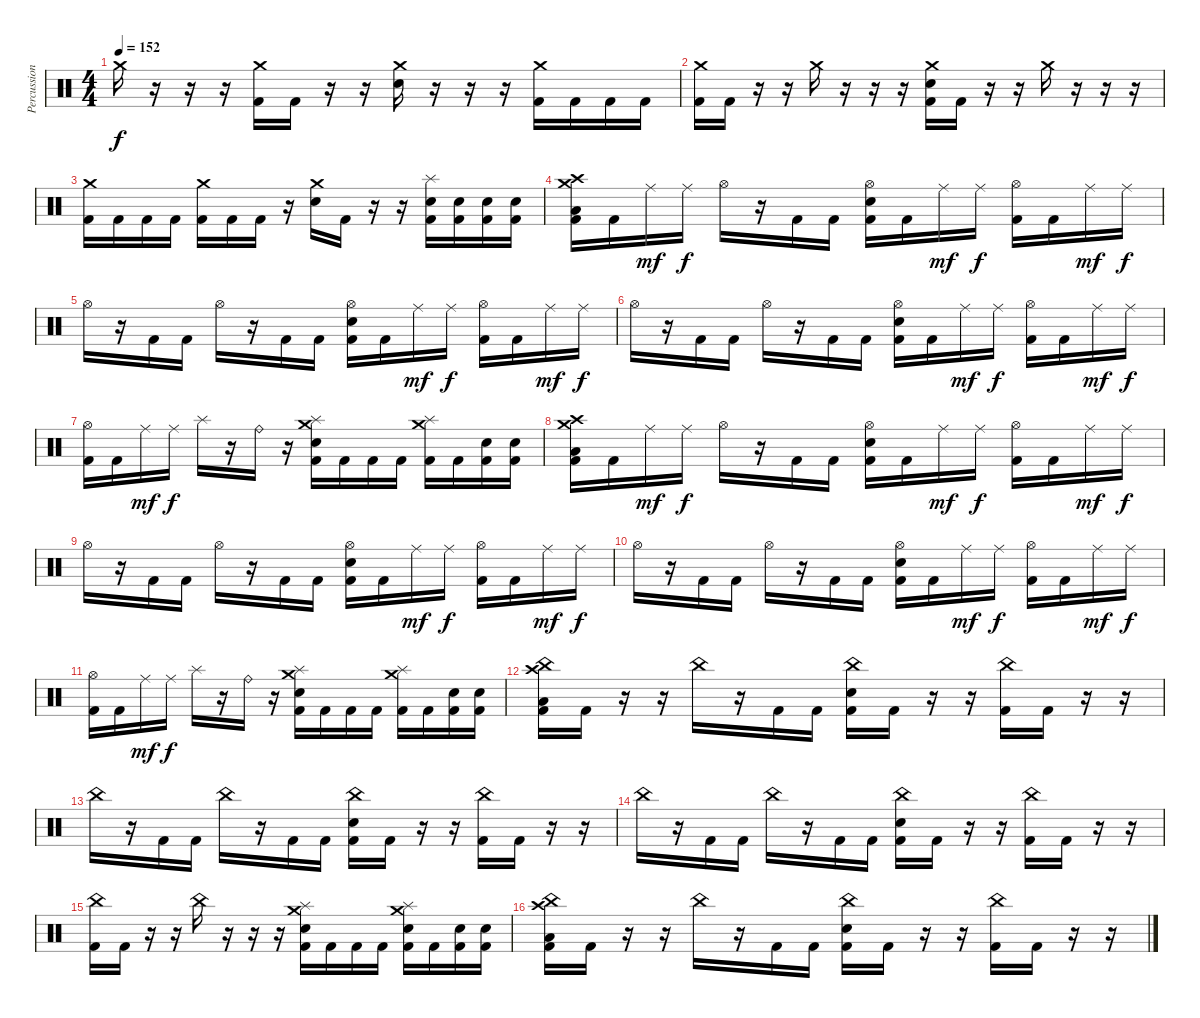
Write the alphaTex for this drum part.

\track ("Percussion" "Percussion") {instrument percussion}
\staff {score}
\articulation defaults
\ts (4 4)
\tempo 152
\clef neutral
\ks c "Crash medium (hit)".16{dy f}
r.16 r.16 r.16 ("Crash medium (hit)" "Kick (hit) 2").16 "Kick (hit) 2".16 r.16 r.16 ("Crash medium (hit)" "Electric Snare (hit)").16 r.16 r.16 r.16 ("Crash medium (hit)" "Kick (hit) 2").16 "Kick (hit) 2".16 "Kick (hit) 2".16 "Kick (hit) 2".16 |
("Crash medium (hit)" "Kick (hit) 2").16 "Kick (hit) 2".16 r.16 r.16 "Crash medium (hit)".16 r.16 r.16 r.16 ("Crash medium (hit)" "Electric Snare (hit)" "Kick (hit) 2").16 "Kick (hit) 2".16 r.16 r.16 "Crash medium (hit)".16 r.16 r.16 r.16 |
("Crash medium (hit)" "Kick (hit) 2").16 "Kick (hit) 2".16 "Kick (hit) 2".16 "Kick (hit) 2".16 ("Crash medium (hit)" "Kick (hit) 2").16 "Kick (hit) 2".16 "Kick (hit) 2".16 r.16 ("Crash medium (hit)" "Electric Snare (hit)").16 "Kick (hit) 2".16 r.16 r.16 ("Splash (hit)" "Electric Snare (hit)" "Kick (hit) 2").16 ("Electric Snare (hit)" "Kick (hit) 2").16 ("Electric Snare (hit)" "Kick (hit) 2").16 ("Electric Snare (hit)" "Kick (hit) 2").16 |
("Crash high (hit)" "Crash medium (hit)" "Low Floor Tom (hit)" "Kick (hit) 2").16 "Kick (hit) 2".16 "Ride (middle)".16{dy mf} "Ride (middle)".16{dy f} "Hi-Hat (open)".16 r.16 "Kick (hit) 2".16 "Kick (hit) 2".16 ("Hi-Hat (open)" "Electric Snare (hit)" "Kick (hit) 2").16 "Kick (hit) 2".16 "Ride (middle)".16{dy mf} "Ride (middle)".16{dy f} ("Hi-Hat (open)" "Kick (hit) 2").16 "Kick (hit) 2".16 "Ride (middle)".16{dy mf} "Ride (middle)".16{dy f} |
"Hi-Hat (open)".16 r.16 "Kick (hit) 2".16 "Kick (hit) 2".16 "Hi-Hat (open)".16 r.16 "Kick (hit) 2".16 "Kick (hit) 2".16 ("Hi-Hat (open)" "Electric Snare (hit)" "Kick (hit) 2").16 "Kick (hit) 2".16 "Ride (middle)".16{dy mf} "Ride (middle)".16{dy f} ("Hi-Hat (open)" "Kick (hit) 2").16 "Kick (hit) 2".16 "Ride (middle)".16{dy mf} "Ride (middle)".16{dy f} |
"Hi-Hat (open)".16 r.16 "Kick (hit) 2".16 "Kick (hit) 2".16 "Hi-Hat (open)".16 r.16 "Kick (hit) 2".16 "Kick (hit) 2".16 ("Hi-Hat (open)" "Electric Snare (hit)" "Kick (hit) 2").16 "Kick (hit) 2".16 "Ride (middle)".16{dy mf} "Ride (middle)".16{dy f} ("Hi-Hat (open)" "Kick (hit) 2").16 "Kick (hit) 2".16 "Ride (middle)".16{dy mf} "Ride (middle)".16{dy f} |
("Hi-Hat (open)" "Kick (hit) 2").16 "Kick (hit) 2".16 "Ride (middle)".16{dy mf} "Ride (middle)".16{dy f} "Splash (hit)".16 r.16 "Ride (bell)".16 r.16 ("Crash medium (hit)" "Splash (hit)" "Electric Snare (hit)" "Kick (hit) 2").16 "Kick (hit) 2".16 "Kick (hit) 2".16 "Kick (hit) 2".16 ("Crash medium (hit)" "Splash (hit)" "Kick (hit) 2").16 "Kick (hit) 2".16 ("Electric Snare (hit)" "Kick (hit) 2").16 ("Electric Snare (hit)" "Kick (hit) 2").16 |
("Crash high (hit)" "Crash medium (hit)" "Low Floor Tom (hit)" "Kick (hit) 2").16 "Kick (hit) 2".16 "Ride (middle)".16{dy mf} "Ride (middle)".16{dy f} "Hi-Hat (open)".16 r.16 "Kick (hit) 2".16 "Kick (hit) 2".16 ("Hi-Hat (open)" "Electric Snare (hit)" "Kick (hit) 2").16 "Kick (hit) 2".16 "Ride (middle)".16{dy mf} "Ride (middle)".16{dy f} ("Hi-Hat (open)" "Kick (hit) 2").16 "Kick (hit) 2".16 "Ride (middle)".16{dy mf} "Ride (middle)".16{dy f} |
"Hi-Hat (open)".16 r.16 "Kick (hit) 2".16 "Kick (hit) 2".16 "Hi-Hat (open)".16 r.16 "Kick (hit) 2".16 "Kick (hit) 2".16 ("Hi-Hat (open)" "Electric Snare (hit)" "Kick (hit) 2").16 "Kick (hit) 2".16 "Ride (middle)".16{dy mf} "Ride (middle)".16{dy f} ("Hi-Hat (open)" "Kick (hit) 2").16 "Kick (hit) 2".16 "Ride (middle)".16{dy mf} "Ride (middle)".16{dy f} |
"Hi-Hat (open)".16 r.16 "Kick (hit) 2".16 "Kick (hit) 2".16 "Hi-Hat (open)".16 r.16 "Kick (hit) 2".16 "Kick (hit) 2".16 ("Hi-Hat (open)" "Electric Snare (hit)" "Kick (hit) 2").16 "Kick (hit) 2".16 "Ride (middle)".16{dy mf} "Ride (middle)".16{dy f} ("Hi-Hat (open)" "Kick (hit) 2").16 "Kick (hit) 2".16 "Ride (middle)".16{dy mf} "Ride (middle)".16{dy f} |
("Hi-Hat (open)" "Kick (hit) 2").16 "Kick (hit) 2".16 "Ride (middle)".16{dy mf} "Ride (middle)".16{dy f} "Splash (hit)".16 r.16 "Ride (bell)".16 r.16 ("Crash medium (hit)" "Splash (hit)" "Electric Snare (hit)" "Kick (hit) 2").16 "Kick (hit) 2".16 "Kick (hit) 2".16 "Kick (hit) 2".16 ("Crash medium (hit)" "Splash (hit)" "Kick (hit) 2").16 "Kick (hit) 2".16 ("Electric Snare (hit)" "Kick (hit) 2").16 ("Electric Snare (hit)" "Kick (hit) 2").16 |
("Crash high (hit)" "China (hit)" "Low Floor Tom (hit)" "Kick (hit) 2").16 "Kick (hit) 2".16 r.16 r.16 "China (hit)".16 r.16 "Kick (hit) 2".16 "Kick (hit) 2".16 ("China (hit)" "Electric Snare (hit)" "Kick (hit) 2").16 "Kick (hit) 2".16 r.16 r.16 ("China (hit)" "Kick (hit) 2").16 "Kick (hit) 2".16 r.16 r.16 |
"China (hit)".16 r.16 "Kick (hit) 2".16 "Kick (hit) 2".16 "China (hit)".16 r.16 "Kick (hit) 2".16 "Kick (hit) 2".16 ("China (hit)" "Electric Snare (hit)" "Kick (hit) 2").16 "Kick (hit) 2".16 r.16 r.16 ("China (hit)" "Kick (hit) 2").16 "Kick (hit) 2".16 r.16 r.16 |
"China (hit)".16 r.16 "Kick (hit) 2".16 "Kick (hit) 2".16 "China (hit)".16 r.16 "Kick (hit) 2".16 "Kick (hit) 2".16 ("China (hit)" "Electric Snare (hit)" "Kick (hit) 2").16 "Kick (hit) 2".16 r.16 r.16 ("China (hit)" "Kick (hit) 2").16 "Kick (hit) 2".16 r.16 r.16 |
("China (hit)" "Kick (hit) 2").16 "Kick (hit) 2".16 r.16 r.16 "China (hit)".16 r.16 r.16 r.16 ("Crash medium (hit)" "Splash (hit)" "Electric Snare (hit)" "Kick (hit) 2").16 "Kick (hit) 2".16 "Kick (hit) 2".16 "Kick (hit) 2".16 ("Splash (hit)" "Crash medium (hit)" "Electric Snare (hit)" "Kick (hit) 2").16 "Kick (hit) 2".16 ("Electric Snare (hit)" "Kick (hit) 2").16 ("Electric Snare (hit)" "Kick (hit) 2").16 |
("Crash high (hit)" "China (hit)" "Low Floor Tom (hit)" "Kick (hit) 2").16 "Kick (hit) 2".16 r.16 r.16 "China (hit)".16 r.16 "Kick (hit) 2".16 "Kick (hit) 2".16 ("China (hit)" "Electric Snare (hit)" "Kick (hit) 2").16 "Kick (hit) 2".16 r.16 r.16 ("China (hit)" "Kick (hit) 2").16 "Kick (hit) 2".16 r.16 r.16
